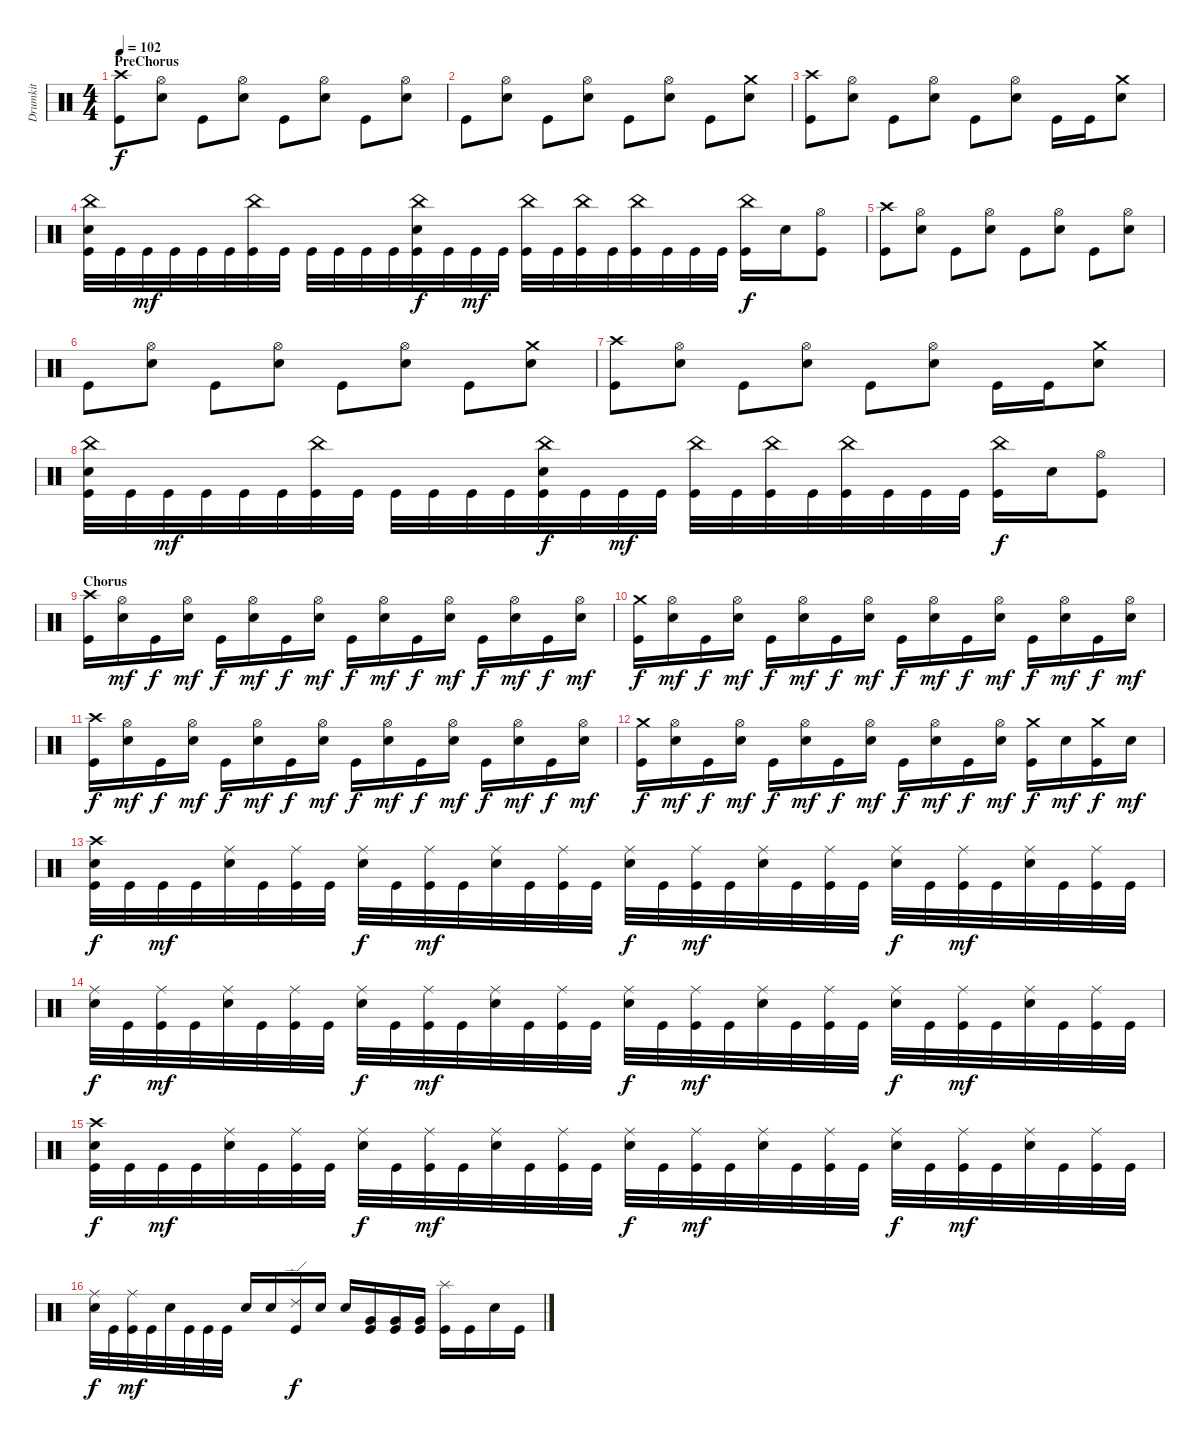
\track ("Drumkit" "Drumkit") {instrument percussion}
\staff {score}
\articulation defaults
\ts (4 4)
\section ("" "PreChorus")
\tempo 102
\clef neutral
\ks c
("Kick (hit)" "Crash high (hit)").8{dy f} ("Snare (hit) 2" "Hi-Hat (open)").8 "Kick (hit)".8 ("Snare (hit) 2" "Hi-Hat (open)").8 "Kick (hit)".8 ("Snare (hit) 2" "Hi-Hat (open)").8 "Kick (hit)".8 ("Snare (hit) 2" "Hi-Hat (open)").8 |
"Kick (hit)".8 ("Snare (hit) 2" "Hi-Hat (open)").8 "Kick (hit)".8 ("Snare (hit) 2" "Hi-Hat (open)").8 "Kick (hit)".8 ("Snare (hit) 2" "Hi-Hat (open)").8 "Kick (hit)".8 ("Snare (hit) 2" "Crash medium (hit)").8 |
("Kick (hit)" "Crash high (hit)").8 ("Snare (hit) 2" "Hi-Hat (open)").8 "Kick (hit)".8 ("Snare (hit) 2" "Hi-Hat (open)").8 "Kick (hit)".8 ("Snare (hit) 2" "Hi-Hat (open)").8 "Kick (hit)".16 "Kick (hit)".16 ("Snare (hit) 2" "Crash medium (hit)").8 |
("Kick (hit)" "Snare (hit) 2" "China (hit)").32 "Kick (hit)".32 "Kick (hit)".32{dy mf} "Kick (hit)".32 "Kick (hit)".32 "Kick (hit)".32 ("Kick (hit)" "China (hit)").32 "Kick (hit)".32 "Kick (hit)".32 "Kick (hit)".32 "Kick (hit)".32 "Kick (hit)".32 ("Kick (hit)" "Snare (hit) 2" "China (hit)").32{dy f} "Kick (hit)".32 "Kick (hit)".32{dy mf} "Kick (hit)".32 ("Kick (hit)" "China (hit)").32 "Kick (hit)".32 ("Kick (hit)" "China (hit)").32 "Kick (hit)".32 ("Kick (hit)" "China (hit)").32 "Kick (hit)".32 "Kick (hit)".32 "Kick (hit)".32 ("Kick (hit)" "China (hit)").16{dy f} "Snare (hit) 2".16 ("Kick (hit)" "Hi-Hat (open)").8 |
("Kick (hit)" "Crash high (hit)").8 ("Snare (hit) 2" "Hi-Hat (open)").8 "Kick (hit)".8 ("Snare (hit) 2" "Hi-Hat (open)").8 "Kick (hit)".8 ("Snare (hit) 2" "Hi-Hat (open)").8 "Kick (hit)".8 ("Snare (hit) 2" "Hi-Hat (open)").8 |
"Kick (hit)".8 ("Snare (hit) 2" "Hi-Hat (open)").8 "Kick (hit)".8 ("Snare (hit) 2" "Hi-Hat (open)").8 "Kick (hit)".8 ("Snare (hit) 2" "Hi-Hat (open)").8 "Kick (hit)".8 ("Snare (hit) 2" "Crash medium (hit)").8 |
("Kick (hit)" "Crash high (hit)").8 ("Snare (hit) 2" "Hi-Hat (open)").8 "Kick (hit)".8 ("Snare (hit) 2" "Hi-Hat (open)").8 "Kick (hit)".8 ("Snare (hit) 2" "Hi-Hat (open)").8 "Kick (hit)".16 "Kick (hit)".16 ("Snare (hit) 2" "Crash medium (hit)").8 |
("Kick (hit)" "Snare (hit) 2" "China (hit)").32 "Kick (hit)".32 "Kick (hit)".32{dy mf} "Kick (hit)".32 "Kick (hit)".32 "Kick (hit)".32 ("Kick (hit)" "China (hit)").32 "Kick (hit)".32 "Kick (hit)".32 "Kick (hit)".32 "Kick (hit)".32 "Kick (hit)".32 ("Kick (hit)" "Snare (hit) 2" "China (hit)").32{dy f} "Kick (hit)".32 "Kick (hit)".32{dy mf} "Kick (hit)".32 ("Kick (hit)" "China (hit)").32 "Kick (hit)".32 ("Kick (hit)" "China (hit)").32 "Kick (hit)".32 ("Kick (hit)" "China (hit)").32 "Kick (hit)".32 "Kick (hit)".32 "Kick (hit)".32 ("Kick (hit)" "China (hit)").16{dy f} "Snare (hit) 2".16 ("Kick (hit)" "Hi-Hat (open)").8 |
\section ("" "Chorus")
("Kick (hit)" "Crash high (hit)").16 ("Snare (hit) 2" "Hi-Hat (open)").16{dy mf} "Kick (hit)".16{dy f} ("Snare (hit) 2" "Hi-Hat (open)").16{dy mf} "Kick (hit)".16{dy f} ("Snare (hit) 2" "Hi-Hat (open)").16{dy mf} "Kick (hit)".16{dy f} ("Snare (hit) 2" "Hi-Hat (open)").16{dy mf} "Kick (hit)".16{dy f} ("Snare (hit) 2" "Hi-Hat (open)").16{dy mf} "Kick (hit)".16{dy f} ("Snare (hit) 2" "Hi-Hat (open)").16{dy mf} "Kick (hit)".16{dy f} ("Snare (hit) 2" "Hi-Hat (open)").16{dy mf} "Kick (hit)".16{dy f} ("Snare (hit) 2" "Hi-Hat (open)").16{dy mf} |
("Kick (hit)" "Crash medium (hit)").16{dy f} ("Snare (hit) 2" "Hi-Hat (open)").16{dy mf} "Kick (hit)".16{dy f} ("Snare (hit) 2" "Hi-Hat (open)").16{dy mf} "Kick (hit)".16{dy f} ("Snare (hit) 2" "Hi-Hat (open)").16{dy mf} "Kick (hit)".16{dy f} ("Snare (hit) 2" "Hi-Hat (open)").16{dy mf} "Kick (hit)".16{dy f} ("Snare (hit) 2" "Hi-Hat (open)").16{dy mf} "Kick (hit)".16{dy f} ("Snare (hit) 2" "Hi-Hat (open)").16{dy mf} "Kick (hit)".16{dy f} ("Snare (hit) 2" "Hi-Hat (open)").16{dy mf} "Kick (hit)".16{dy f} ("Snare (hit) 2" "Hi-Hat (open)").16{dy mf} |
("Kick (hit)" "Crash high (hit)").16{dy f} ("Snare (hit) 2" "Hi-Hat (open)").16{dy mf} "Kick (hit)".16{dy f} ("Snare (hit) 2" "Hi-Hat (open)").16{dy mf} "Kick (hit)".16{dy f} ("Snare (hit) 2" "Hi-Hat (open)").16{dy mf} "Kick (hit)".16{dy f} ("Snare (hit) 2" "Hi-Hat (open)").16{dy mf} "Kick (hit)".16{dy f} ("Snare (hit) 2" "Hi-Hat (open)").16{dy mf} "Kick (hit)".16{dy f} ("Snare (hit) 2" "Hi-Hat (open)").16{dy mf} "Kick (hit)".16{dy f} ("Snare (hit) 2" "Hi-Hat (open)").16{dy mf} "Kick (hit)".16{dy f} ("Snare (hit) 2" "Hi-Hat (open)").16{dy mf} |
("Kick (hit)" "Crash medium (hit)").16{dy f} ("Snare (hit) 2" "Hi-Hat (open)").16{dy mf} "Kick (hit)".16{dy f} ("Snare (hit) 2" "Hi-Hat (open)").16{dy mf} "Kick (hit)".16{dy f} ("Snare (hit) 2" "Hi-Hat (open)").16{dy mf} "Kick (hit)".16{dy f} ("Snare (hit) 2" "Hi-Hat (open)").16{dy mf} "Kick (hit)".16{dy f} ("Snare (hit) 2" "Hi-Hat (open)").16{dy mf} "Kick (hit)".16{dy f} ("Snare (hit) 2" "Hi-Hat (open)").16{dy mf} ("Kick (hit)" "Crash medium (hit)").16{dy f} "Snare (hit) 2".16{dy mf} ("Kick (hit)" "Crash medium (hit)").16{dy f} "Snare (hit) 2".16{dy mf} |
("Snare (hit) 2" "Kick (hit)" "Crash high (hit)").32{dy f} "Kick (hit)".32 "Kick (hit)".32{dy mf} "Kick (hit)".32 ("Snare (hit) 2" "Ride (middle)").32 "Kick (hit)".32 ("Kick (hit)" "Ride (middle)").32 "Kick (hit)".32 ("Snare (hit) 2" "Ride (middle)").32{dy f} "Kick (hit)".32 ("Kick (hit)" "Ride (middle)").32{dy mf} "Kick (hit)".32 ("Snare (hit) 2" "Ride (middle)").32 "Kick (hit)".32 ("Kick (hit)" "Ride (middle)").32 "Kick (hit)".32 ("Snare (hit) 2" "Ride (middle)").32{dy f} "Kick (hit)".32 ("Kick (hit)" "Ride (middle)").32{dy mf} "Kick (hit)".32 ("Snare (hit) 2" "Ride (middle)").32 "Kick (hit)".32 ("Kick (hit)" "Ride (middle)").32 "Kick (hit)".32 ("Snare (hit) 2" "Ride (middle)").32{dy f} "Kick (hit)".32 ("Kick (hit)" "Ride (middle)").32{dy mf} "Kick (hit)".32 ("Snare (hit) 2" "Ride (middle)").32 "Kick (hit)".32 ("Kick (hit)" "Ride (middle)").32 "Kick (hit)".32 |
("Snare (hit) 2" "Ride (middle)").32{dy f} "Kick (hit)".32 ("Kick (hit)" "Ride (middle)").32{dy mf} "Kick (hit)".32 ("Snare (hit) 2" "Ride (middle)").32 "Kick (hit)".32 ("Kick (hit)" "Ride (middle)").32 "Kick (hit)".32 ("Snare (hit) 2" "Ride (middle)").32{dy f} "Kick (hit)".32 ("Kick (hit)" "Ride (middle)").32{dy mf} "Kick (hit)".32 ("Snare (hit) 2" "Ride (middle)").32 "Kick (hit)".32 ("Kick (hit)" "Ride (middle)").32 "Kick (hit)".32 ("Snare (hit) 2" "Ride (middle)").32{dy f} "Kick (hit)".32 ("Kick (hit)" "Ride (middle)").32{dy mf} "Kick (hit)".32 ("Snare (hit) 2" "Ride (middle)").32 "Kick (hit)".32 ("Kick (hit)" "Ride (middle)").32 "Kick (hit)".32 ("Snare (hit) 2" "Ride (middle)").32{dy f} "Kick (hit)".32 ("Kick (hit)" "Ride (middle)").32{dy mf} "Kick (hit)".32 ("Snare (hit) 2" "Ride (middle)").32 "Kick (hit)".32 ("Kick (hit)" "Ride (middle)").32 "Kick (hit)".32 |
("Snare (hit) 2" "Kick (hit)" "Crash high (hit)").32{dy f} "Kick (hit)".32 "Kick (hit)".32{dy mf} "Kick (hit)".32 ("Snare (hit) 2" "Ride (middle)").32 "Kick (hit)".32 ("Kick (hit)" "Ride (middle)").32 "Kick (hit)".32 ("Snare (hit) 2" "Ride (middle)").32{dy f} "Kick (hit)".32 ("Kick (hit)" "Ride (middle)").32{dy mf} "Kick (hit)".32 ("Snare (hit) 2" "Ride (middle)").32 "Kick (hit)".32 ("Kick (hit)" "Ride (middle)").32 "Kick (hit)".32 ("Snare (hit) 2" "Ride (middle)").32{dy f} "Kick (hit)".32 ("Kick (hit)" "Ride (middle)").32{dy mf} "Kick (hit)".32 ("Snare (hit) 2" "Ride (middle)").32 "Kick (hit)".32 ("Kick (hit)" "Ride (middle)").32 "Kick (hit)".32 ("Snare (hit) 2" "Ride (middle)").32{dy f} "Kick (hit)".32 ("Kick (hit)" "Ride (middle)").32{dy mf} "Kick (hit)".32 ("Snare (hit) 2" "Ride (middle)").32 "Kick (hit)".32 ("Kick (hit)" "Ride (middle)").32 "Kick (hit)".32 |
("Snare (hit) 2" "Ride (middle)").32{dy f} "Kick (hit)".32 ("Kick (hit)" "Ride (middle)").32{dy mf} "Kick (hit)".32 "Snare (hit) 2".32 "Kick (hit)".32 "Kick (hit)".32 "Kick (hit)".32 "Snare (hit) 2".16 "Snare (hit) 2".16 ("Kick (hit)" "Ride (edge) 2").16{dy f} "Snare (hit) 2".16 "Snare (hit) 2".16 ("Kick (hit)" "Very Low Tom (hit)").16 ("Kick (hit)" "Very Low Tom (hit)").16 ("Kick (hit)" "Very Low Tom (hit)").16 ("Kick (hit)" "Splash (hit)").16 "Kick (hit)".16 "Snare (hit) 2".16 "Kick (hit)".16
